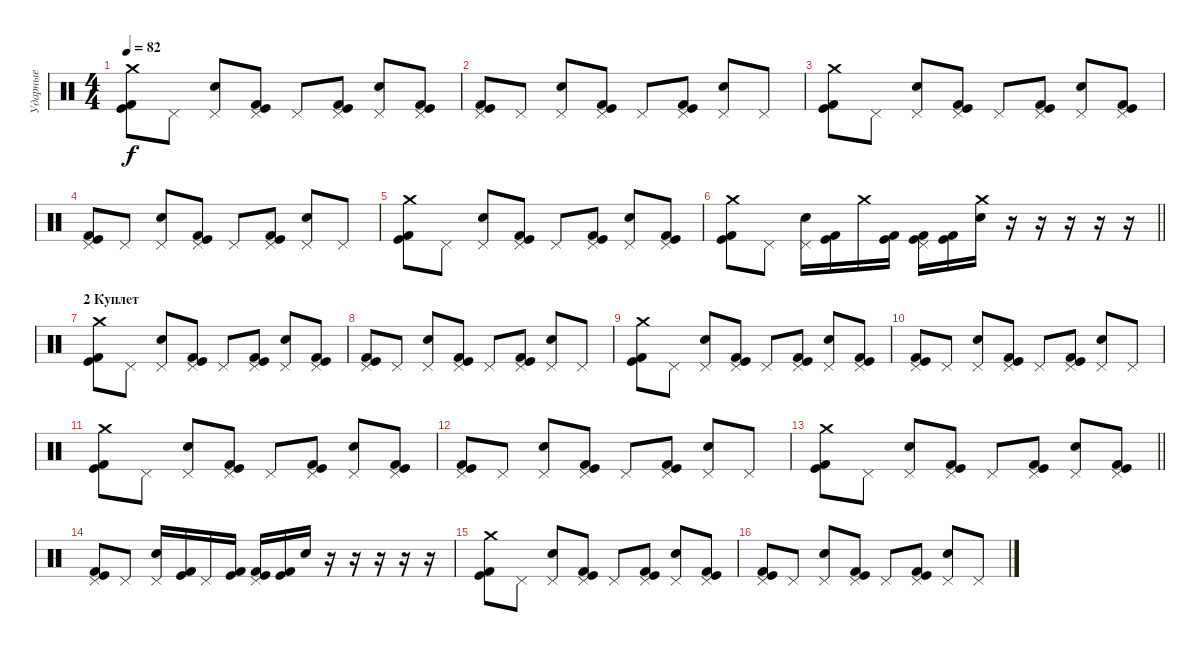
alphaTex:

\track ("Ударные" "Ударные") {instrument percussion}
\staff {score}
\articulation defaults
\ts (4 4)
\tempo 82
\clef neutral
\ks c
("Crash medium (hit)" "Kick (hit)" "Kick (hit) 2").8{dy f} "Pedal Hi-Hat (hit)".8 ("Pedal Hi-Hat (hit)" "Electric Snare (hit)").8 ("Pedal Hi-Hat (hit)" "Kick (hit)" "Kick (hit) 2").8 "Pedal Hi-Hat (hit)".8 ("Pedal Hi-Hat (hit)" "Kick (hit)" "Kick (hit) 2").8 ("Pedal Hi-Hat (hit)" "Electric Snare (hit)").8 ("Pedal Hi-Hat (hit)" "Kick (hit)" "Kick (hit) 2").8 |
("Pedal Hi-Hat (hit)" "Kick (hit)" "Kick (hit) 2").8 "Pedal Hi-Hat (hit)".8 ("Pedal Hi-Hat (hit)" "Electric Snare (hit)").8 ("Pedal Hi-Hat (hit)" "Kick (hit)" "Kick (hit) 2").8 "Pedal Hi-Hat (hit)".8 ("Pedal Hi-Hat (hit)" "Kick (hit)" "Kick (hit) 2").8 ("Pedal Hi-Hat (hit)" "Electric Snare (hit)").8 "Pedal Hi-Hat (hit)".8 |
("Crash medium (hit)" "Kick (hit)" "Kick (hit) 2").8 "Pedal Hi-Hat (hit)".8 ("Pedal Hi-Hat (hit)" "Electric Snare (hit)").8 ("Pedal Hi-Hat (hit)" "Kick (hit)" "Kick (hit) 2").8 "Pedal Hi-Hat (hit)".8 ("Pedal Hi-Hat (hit)" "Kick (hit)" "Kick (hit) 2").8 ("Pedal Hi-Hat (hit)" "Electric Snare (hit)").8 ("Pedal Hi-Hat (hit)" "Kick (hit)" "Kick (hit) 2").8 |
("Pedal Hi-Hat (hit)" "Kick (hit)" "Kick (hit) 2").8 "Pedal Hi-Hat (hit)".8 ("Pedal Hi-Hat (hit)" "Electric Snare (hit)").8 ("Pedal Hi-Hat (hit)" "Kick (hit)" "Kick (hit) 2").8 "Pedal Hi-Hat (hit)".8 ("Pedal Hi-Hat (hit)" "Kick (hit)" "Kick (hit) 2").8 ("Pedal Hi-Hat (hit)" "Electric Snare (hit)").8 "Pedal Hi-Hat (hit)".8 |
("Crash medium (hit)" "Kick (hit)" "Kick (hit) 2").8 "Pedal Hi-Hat (hit)".8 ("Pedal Hi-Hat (hit)" "Electric Snare (hit)").8 ("Pedal Hi-Hat (hit)" "Kick (hit)" "Kick (hit) 2").8 "Pedal Hi-Hat (hit)".8 ("Pedal Hi-Hat (hit)" "Kick (hit)" "Kick (hit) 2").8 ("Pedal Hi-Hat (hit)" "Electric Snare (hit)").8 ("Pedal Hi-Hat (hit)" "Kick (hit)" "Kick (hit) 2").8 |
\barLineRight lightlight
("Crash medium (hit)" "Kick (hit)" "Kick (hit) 2").8 "Pedal Hi-Hat (hit)".8 ("Pedal Hi-Hat (hit)" "Electric Snare (hit)").16 ("Kick (hit)" "Kick (hit) 2").16 "Crash medium (hit)".16 ("Kick (hit)" "Kick (hit) 2").16 ("Pedal Hi-Hat (hit)" "Kick (hit)" "Kick (hit) 2").16 ("Kick (hit)" "Kick (hit) 2").16 ("Crash medium (hit)" "Electric Snare (hit)").16 r.16 r.16 r.16 r.16 r.16 |
\section ("" "2 Куплет")
("Crash medium (hit)" "Kick (hit)" "Kick (hit) 2").8 "Pedal Hi-Hat (hit)".8 ("Pedal Hi-Hat (hit)" "Electric Snare (hit)").8 ("Pedal Hi-Hat (hit)" "Kick (hit)" "Kick (hit) 2").8 "Pedal Hi-Hat (hit)".8 ("Pedal Hi-Hat (hit)" "Kick (hit)" "Kick (hit) 2").8 ("Pedal Hi-Hat (hit)" "Electric Snare (hit)").8 ("Pedal Hi-Hat (hit)" "Kick (hit)" "Kick (hit) 2").8 |
("Pedal Hi-Hat (hit)" "Kick (hit)" "Kick (hit) 2").8 "Pedal Hi-Hat (hit)".8 ("Pedal Hi-Hat (hit)" "Electric Snare (hit)").8 ("Pedal Hi-Hat (hit)" "Kick (hit)" "Kick (hit) 2").8 "Pedal Hi-Hat (hit)".8 ("Pedal Hi-Hat (hit)" "Kick (hit)" "Kick (hit) 2").8 ("Pedal Hi-Hat (hit)" "Electric Snare (hit)").8 "Pedal Hi-Hat (hit)".8 |
("Crash medium (hit)" "Kick (hit)" "Kick (hit) 2").8 "Pedal Hi-Hat (hit)".8 ("Pedal Hi-Hat (hit)" "Electric Snare (hit)").8 ("Pedal Hi-Hat (hit)" "Kick (hit)" "Kick (hit) 2").8 "Pedal Hi-Hat (hit)".8 ("Pedal Hi-Hat (hit)" "Kick (hit)" "Kick (hit) 2").8 ("Pedal Hi-Hat (hit)" "Electric Snare (hit)").8 ("Pedal Hi-Hat (hit)" "Kick (hit)" "Kick (hit) 2").8 |
("Pedal Hi-Hat (hit)" "Kick (hit)" "Kick (hit) 2").8 "Pedal Hi-Hat (hit)".8 ("Pedal Hi-Hat (hit)" "Electric Snare (hit)").8 ("Pedal Hi-Hat (hit)" "Kick (hit)" "Kick (hit) 2").8 "Pedal Hi-Hat (hit)".8 ("Pedal Hi-Hat (hit)" "Kick (hit)" "Kick (hit) 2").8 ("Pedal Hi-Hat (hit)" "Electric Snare (hit)").8 "Pedal Hi-Hat (hit)".8 |
("Crash medium (hit)" "Kick (hit)" "Kick (hit) 2").8 "Pedal Hi-Hat (hit)".8 ("Pedal Hi-Hat (hit)" "Electric Snare (hit)").8 ("Pedal Hi-Hat (hit)" "Kick (hit)" "Kick (hit) 2").8 "Pedal Hi-Hat (hit)".8 ("Pedal Hi-Hat (hit)" "Kick (hit)" "Kick (hit) 2").8 ("Pedal Hi-Hat (hit)" "Electric Snare (hit)").8 ("Pedal Hi-Hat (hit)" "Kick (hit)" "Kick (hit) 2").8 |
("Pedal Hi-Hat (hit)" "Kick (hit)" "Kick (hit) 2").8 "Pedal Hi-Hat (hit)".8 ("Pedal Hi-Hat (hit)" "Electric Snare (hit)").8 ("Pedal Hi-Hat (hit)" "Kick (hit)" "Kick (hit) 2").8 "Pedal Hi-Hat (hit)".8 ("Pedal Hi-Hat (hit)" "Kick (hit)" "Kick (hit) 2").8 ("Pedal Hi-Hat (hit)" "Electric Snare (hit)").8 "Pedal Hi-Hat (hit)".8 |
\barLineRight lightlight
("Crash medium (hit)" "Kick (hit)" "Kick (hit) 2").8 "Pedal Hi-Hat (hit)".8 ("Pedal Hi-Hat (hit)" "Electric Snare (hit)").8 ("Pedal Hi-Hat (hit)" "Kick (hit)" "Kick (hit) 2").8 "Pedal Hi-Hat (hit)".8 ("Pedal Hi-Hat (hit)" "Kick (hit)" "Kick (hit) 2").8 ("Pedal Hi-Hat (hit)" "Electric Snare (hit)").8 ("Pedal Hi-Hat (hit)" "Kick (hit)" "Kick (hit) 2").8 |
("Pedal Hi-Hat (hit)" "Kick (hit)" "Kick (hit) 2").8 "Pedal Hi-Hat (hit)".8 ("Pedal Hi-Hat (hit)" "Electric Snare (hit)").16 ("Kick (hit)" "Kick (hit) 2").16 "Pedal Hi-Hat (hit)".16 ("Kick (hit)" "Kick (hit) 2").16 ("Pedal Hi-Hat (hit)" "Kick (hit)" "Kick (hit) 2").16 ("Kick (hit)" "Kick (hit) 2").16 "Electric Snare (hit)".16 r.16 r.16 r.16 r.16 r.16 |
("Crash medium (hit)" "Kick (hit)" "Kick (hit) 2").8 "Pedal Hi-Hat (hit)".8 ("Pedal Hi-Hat (hit)" "Electric Snare (hit)").8 ("Pedal Hi-Hat (hit)" "Kick (hit)" "Kick (hit) 2").8 "Pedal Hi-Hat (hit)".8 ("Pedal Hi-Hat (hit)" "Kick (hit)" "Kick (hit) 2").8 ("Pedal Hi-Hat (hit)" "Electric Snare (hit)").8 ("Pedal Hi-Hat (hit)" "Kick (hit)" "Kick (hit) 2").8 |
("Pedal Hi-Hat (hit)" "Kick (hit)" "Kick (hit) 2").8 "Pedal Hi-Hat (hit)".8 ("Pedal Hi-Hat (hit)" "Electric Snare (hit)").8 ("Pedal Hi-Hat (hit)" "Kick (hit)" "Kick (hit) 2").8 "Pedal Hi-Hat (hit)".8 ("Pedal Hi-Hat (hit)" "Kick (hit)" "Kick (hit) 2").8 ("Pedal Hi-Hat (hit)" "Electric Snare (hit)").8 "Pedal Hi-Hat (hit)".8
